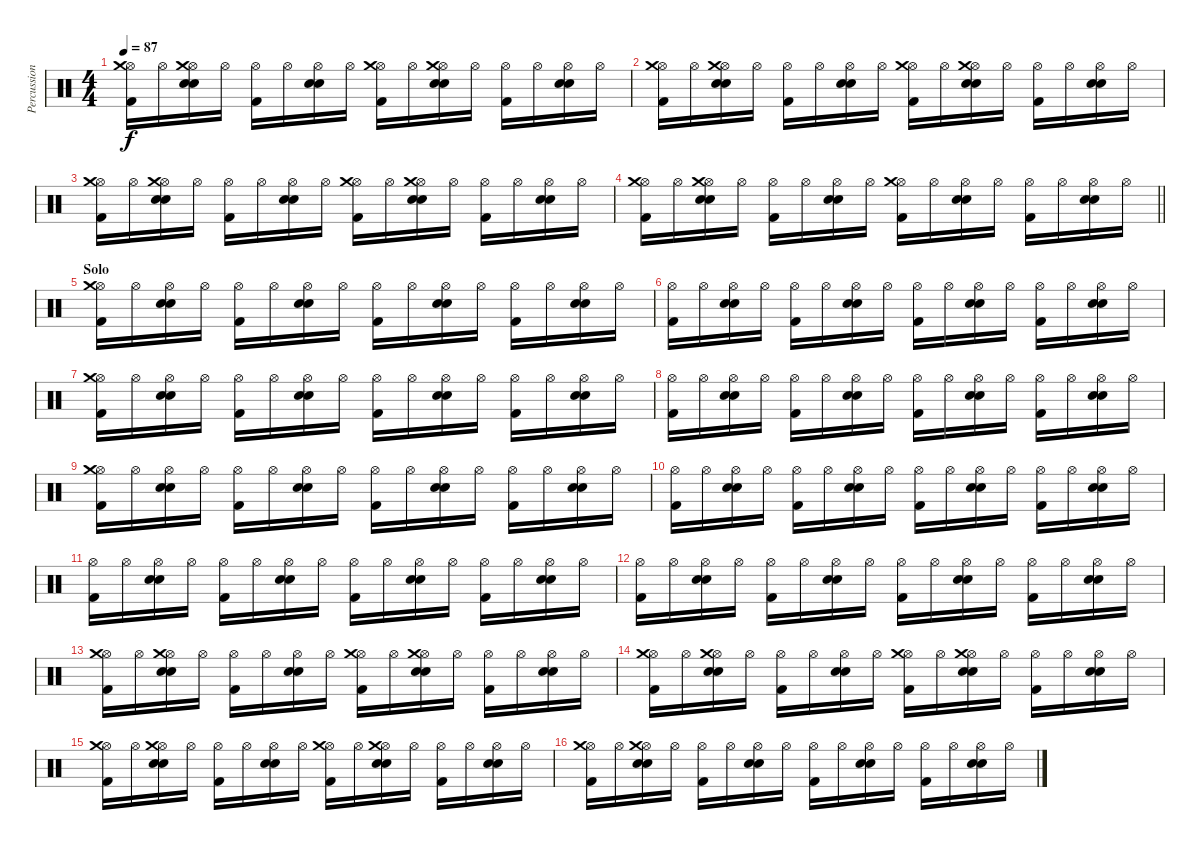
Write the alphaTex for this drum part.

\track ("Percussion" "Percussion") {instrument percussion}
\staff {score}
\articulation defaults
\ts (4 4)
\tempo 87
\clef neutral
\ks c
("Hi-Hat (open)" "Crash medium (hit)" "Kick (hit) 2").16{dy f} "Hi-Hat (open)".16 ("Hi-Hat (open)" "Crash medium (hit)" "Snare (hit) 2" "Electric Snare (hit)").16 "Hi-Hat (open)".16 ("Hi-Hat (open)" "Kick (hit) 2").16 "Hi-Hat (open)".16 ("Hi-Hat (open)" "Snare (hit) 2" "Electric Snare (hit)").16 "Hi-Hat (open)".16 ("Hi-Hat (open)" "Crash medium (hit)" "Kick (hit) 2").16 "Hi-Hat (open)".16 ("Hi-Hat (open)" "Crash medium (hit)" "Snare (hit) 2" "Electric Snare (hit)").16 "Hi-Hat (open)".16 ("Hi-Hat (open)" "Kick (hit) 2").16 "Hi-Hat (open)".16 ("Hi-Hat (open)" "Snare (hit) 2" "Electric Snare (hit)").16 "Hi-Hat (open)".16 |
("Hi-Hat (open)" "Crash medium (hit)" "Kick (hit) 2").16 "Hi-Hat (open)".16 ("Hi-Hat (open)" "Crash medium (hit)" "Snare (hit) 2" "Electric Snare (hit)").16 "Hi-Hat (open)".16 ("Hi-Hat (open)" "Kick (hit) 2").16 "Hi-Hat (open)".16 ("Hi-Hat (open)" "Snare (hit) 2" "Electric Snare (hit)").16 "Hi-Hat (open)".16 ("Hi-Hat (open)" "Crash medium (hit)" "Kick (hit) 2").16 "Hi-Hat (open)".16 ("Hi-Hat (open)" "Crash medium (hit)" "Snare (hit) 2" "Electric Snare (hit)").16 "Hi-Hat (open)".16 ("Hi-Hat (open)" "Kick (hit) 2").16 "Hi-Hat (open)".16 ("Hi-Hat (open)" "Snare (hit) 2" "Electric Snare (hit)").16 "Hi-Hat (open)".16 |
("Hi-Hat (open)" "Crash medium (hit)" "Kick (hit) 2").16 "Hi-Hat (open)".16 ("Hi-Hat (open)" "Crash medium (hit)" "Snare (hit) 2" "Electric Snare (hit)").16 "Hi-Hat (open)".16 ("Hi-Hat (open)" "Kick (hit) 2").16 "Hi-Hat (open)".16 ("Hi-Hat (open)" "Snare (hit) 2" "Electric Snare (hit)").16 "Hi-Hat (open)".16 ("Hi-Hat (open)" "Crash medium (hit)" "Kick (hit) 2").16 "Hi-Hat (open)".16 ("Hi-Hat (open)" "Crash medium (hit)" "Snare (hit) 2" "Electric Snare (hit)").16 "Hi-Hat (open)".16 ("Hi-Hat (open)" "Kick (hit) 2").16 "Hi-Hat (open)".16 ("Hi-Hat (open)" "Snare (hit) 2" "Electric Snare (hit)").16 "Hi-Hat (open)".16 |
\barLineRight lightlight
("Hi-Hat (open)" "Crash medium (hit)" "Kick (hit) 2").16 "Hi-Hat (open)".16 ("Hi-Hat (open)" "Crash medium (hit)" "Snare (hit) 2" "Electric Snare (hit)").16 "Hi-Hat (open)".16 ("Hi-Hat (open)" "Kick (hit) 2").16 "Hi-Hat (open)".16 ("Hi-Hat (open)" "Snare (hit) 2" "Electric Snare (hit)").16 "Hi-Hat (open)".16 ("Hi-Hat (open)" "Crash medium (hit)" "Kick (hit) 2").16 "Hi-Hat (open)".16 ("Hi-Hat (open)" "Snare (hit) 2" "Electric Snare (hit)").16 "Hi-Hat (open)".16 ("Hi-Hat (open)" "Kick (hit) 2").16 "Hi-Hat (open)".16 ("Hi-Hat (open)" "Snare (hit) 2" "Electric Snare (hit)").16 "Hi-Hat (open)".16 |
\section ("" "Solo")
("Hi-Hat (open)" "Crash medium (hit)" "Kick (hit) 2").16 "Hi-Hat (open)".16 ("Hi-Hat (open)" "Snare (hit) 2" "Electric Snare (hit)").16 "Hi-Hat (open)".16 ("Hi-Hat (open)" "Kick (hit) 2").16 "Hi-Hat (open)".16 ("Hi-Hat (open)" "Snare (hit) 2" "Electric Snare (hit)").16 "Hi-Hat (open)".16 ("Hi-Hat (open)" "Kick (hit) 2").16 "Hi-Hat (open)".16 ("Hi-Hat (open)" "Snare (hit) 2" "Electric Snare (hit)").16 "Hi-Hat (open)".16 ("Hi-Hat (open)" "Kick (hit) 2").16 "Hi-Hat (open)".16 ("Hi-Hat (open)" "Snare (hit) 2" "Electric Snare (hit)").16 "Hi-Hat (open)".16 |
("Hi-Hat (open)" "Kick (hit) 2").16 "Hi-Hat (open)".16 ("Hi-Hat (open)" "Snare (hit) 2" "Electric Snare (hit)").16 "Hi-Hat (open)".16 ("Hi-Hat (open)" "Kick (hit) 2").16 "Hi-Hat (open)".16 ("Hi-Hat (open)" "Snare (hit) 2" "Electric Snare (hit)").16 "Hi-Hat (open)".16 ("Hi-Hat (open)" "Kick (hit) 2").16 "Hi-Hat (open)".16 ("Hi-Hat (open)" "Snare (hit) 2" "Electric Snare (hit)").16 "Hi-Hat (open)".16 ("Hi-Hat (open)" "Kick (hit) 2").16 "Hi-Hat (open)".16 ("Hi-Hat (open)" "Snare (hit) 2" "Electric Snare (hit)").16 "Hi-Hat (open)".16 |
("Hi-Hat (open)" "Crash medium (hit)" "Kick (hit) 2").16 "Hi-Hat (open)".16 ("Hi-Hat (open)" "Snare (hit) 2" "Electric Snare (hit)").16 "Hi-Hat (open)".16 ("Hi-Hat (open)" "Kick (hit) 2").16 "Hi-Hat (open)".16 ("Hi-Hat (open)" "Snare (hit) 2" "Electric Snare (hit)").16 "Hi-Hat (open)".16 ("Hi-Hat (open)" "Kick (hit) 2").16 "Hi-Hat (open)".16 ("Hi-Hat (open)" "Snare (hit) 2" "Electric Snare (hit)").16 "Hi-Hat (open)".16 ("Hi-Hat (open)" "Kick (hit) 2").16 "Hi-Hat (open)".16 ("Hi-Hat (open)" "Snare (hit) 2" "Electric Snare (hit)").16 "Hi-Hat (open)".16 |
("Hi-Hat (open)" "Kick (hit) 2").16 "Hi-Hat (open)".16 ("Hi-Hat (open)" "Snare (hit) 2" "Electric Snare (hit)").16 "Hi-Hat (open)".16 ("Hi-Hat (open)" "Kick (hit) 2").16 "Hi-Hat (open)".16 ("Hi-Hat (open)" "Snare (hit) 2" "Electric Snare (hit)").16 "Hi-Hat (open)".16 ("Hi-Hat (open)" "Kick (hit) 2").16 "Hi-Hat (open)".16 ("Hi-Hat (open)" "Snare (hit) 2" "Electric Snare (hit)").16 "Hi-Hat (open)".16 ("Hi-Hat (open)" "Kick (hit) 2").16 "Hi-Hat (open)".16 ("Hi-Hat (open)" "Snare (hit) 2" "Electric Snare (hit)").16 "Hi-Hat (open)".16 |
("Hi-Hat (open)" "Crash medium (hit)" "Kick (hit) 2").16 "Hi-Hat (open)".16 ("Hi-Hat (open)" "Snare (hit) 2" "Electric Snare (hit)").16 "Hi-Hat (open)".16 ("Hi-Hat (open)" "Kick (hit) 2").16 "Hi-Hat (open)".16 ("Hi-Hat (open)" "Snare (hit) 2" "Electric Snare (hit)").16 "Hi-Hat (open)".16 ("Hi-Hat (open)" "Kick (hit) 2").16 "Hi-Hat (open)".16 ("Hi-Hat (open)" "Snare (hit) 2" "Electric Snare (hit)").16 "Hi-Hat (open)".16 ("Hi-Hat (open)" "Kick (hit) 2").16 "Hi-Hat (open)".16 ("Hi-Hat (open)" "Snare (hit) 2" "Electric Snare (hit)").16 "Hi-Hat (open)".16 |
("Hi-Hat (open)" "Kick (hit) 2").16 "Hi-Hat (open)".16 ("Hi-Hat (open)" "Snare (hit) 2" "Electric Snare (hit)").16 "Hi-Hat (open)".16 ("Hi-Hat (open)" "Kick (hit) 2").16 "Hi-Hat (open)".16 ("Hi-Hat (open)" "Snare (hit) 2" "Electric Snare (hit)").16 "Hi-Hat (open)".16 ("Hi-Hat (open)" "Kick (hit) 2").16 "Hi-Hat (open)".16 ("Hi-Hat (open)" "Snare (hit) 2" "Electric Snare (hit)").16 "Hi-Hat (open)".16 ("Hi-Hat (open)" "Kick (hit) 2").16 "Hi-Hat (open)".16 ("Hi-Hat (open)" "Snare (hit) 2" "Electric Snare (hit)").16 "Hi-Hat (open)".16 |
("Hi-Hat (open)" "Kick (hit) 2").16 "Hi-Hat (open)".16 ("Hi-Hat (open)" "Snare (hit) 2" "Electric Snare (hit)").16 "Hi-Hat (open)".16 ("Hi-Hat (open)" "Kick (hit) 2").16 "Hi-Hat (open)".16 ("Hi-Hat (open)" "Snare (hit) 2" "Electric Snare (hit)").16 "Hi-Hat (open)".16 ("Hi-Hat (open)" "Kick (hit) 2").16 "Hi-Hat (open)".16 ("Hi-Hat (open)" "Snare (hit) 2" "Electric Snare (hit)").16 "Hi-Hat (open)".16 ("Hi-Hat (open)" "Kick (hit) 2").16 "Hi-Hat (open)".16 ("Hi-Hat (open)" "Snare (hit) 2" "Electric Snare (hit)").16 "Hi-Hat (open)".16 |
("Hi-Hat (open)" "Kick (hit) 2").16 "Hi-Hat (open)".16 ("Hi-Hat (open)" "Snare (hit) 2" "Electric Snare (hit)").16 "Hi-Hat (open)".16 ("Hi-Hat (open)" "Kick (hit) 2").16 "Hi-Hat (open)".16 ("Hi-Hat (open)" "Snare (hit) 2" "Electric Snare (hit)").16 "Hi-Hat (open)".16 ("Hi-Hat (open)" "Kick (hit) 2").16 "Hi-Hat (open)".16 ("Hi-Hat (open)" "Snare (hit) 2" "Electric Snare (hit)").16 "Hi-Hat (open)".16 ("Hi-Hat (open)" "Kick (hit) 2").16 "Hi-Hat (open)".16 ("Hi-Hat (open)" "Snare (hit) 2" "Electric Snare (hit)").16 "Hi-Hat (open)".16 |
("Hi-Hat (open)" "Crash medium (hit)" "Kick (hit) 2").16 "Hi-Hat (open)".16 ("Hi-Hat (open)" "Crash medium (hit)" "Snare (hit) 2" "Electric Snare (hit)").16 "Hi-Hat (open)".16 ("Hi-Hat (open)" "Kick (hit) 2").16 "Hi-Hat (open)".16 ("Hi-Hat (open)" "Snare (hit) 2" "Electric Snare (hit)").16 "Hi-Hat (open)".16 ("Hi-Hat (open)" "Crash medium (hit)" "Kick (hit) 2").16 "Hi-Hat (open)".16 ("Hi-Hat (open)" "Crash medium (hit)" "Snare (hit) 2" "Electric Snare (hit)").16 "Hi-Hat (open)".16 ("Hi-Hat (open)" "Kick (hit) 2").16 "Hi-Hat (open)".16 ("Hi-Hat (open)" "Snare (hit) 2" "Electric Snare (hit)").16 "Hi-Hat (open)".16 |
("Hi-Hat (open)" "Crash medium (hit)" "Kick (hit) 2").16 "Hi-Hat (open)".16 ("Hi-Hat (open)" "Crash medium (hit)" "Snare (hit) 2" "Electric Snare (hit)").16 "Hi-Hat (open)".16 ("Hi-Hat (open)" "Kick (hit) 2").16 "Hi-Hat (open)".16 ("Hi-Hat (open)" "Snare (hit) 2" "Electric Snare (hit)").16 "Hi-Hat (open)".16 ("Hi-Hat (open)" "Crash medium (hit)" "Kick (hit) 2").16 "Hi-Hat (open)".16 ("Hi-Hat (open)" "Crash medium (hit)" "Snare (hit) 2" "Electric Snare (hit)").16 "Hi-Hat (open)".16 ("Hi-Hat (open)" "Kick (hit) 2").16 "Hi-Hat (open)".16 ("Hi-Hat (open)" "Snare (hit) 2" "Electric Snare (hit)").16 "Hi-Hat (open)".16 |
("Hi-Hat (open)" "Crash medium (hit)" "Kick (hit) 2").16 "Hi-Hat (open)".16 ("Hi-Hat (open)" "Crash medium (hit)" "Snare (hit) 2" "Electric Snare (hit)").16 "Hi-Hat (open)".16 ("Hi-Hat (open)" "Kick (hit) 2").16 "Hi-Hat (open)".16 ("Hi-Hat (open)" "Snare (hit) 2" "Electric Snare (hit)").16 "Hi-Hat (open)".16 ("Hi-Hat (open)" "Crash medium (hit)" "Kick (hit) 2").16 "Hi-Hat (open)".16 ("Hi-Hat (open)" "Crash medium (hit)" "Snare (hit) 2" "Electric Snare (hit)").16 "Hi-Hat (open)".16 ("Hi-Hat (open)" "Kick (hit) 2").16 "Hi-Hat (open)".16 ("Hi-Hat (open)" "Snare (hit) 2" "Electric Snare (hit)").16 "Hi-Hat (open)".16 |
("Hi-Hat (open)" "Crash medium (hit)" "Kick (hit) 2").16 "Hi-Hat (open)".16 ("Hi-Hat (open)" "Crash medium (hit)" "Snare (hit) 2" "Electric Snare (hit)").16 "Hi-Hat (open)".16 ("Hi-Hat (open)" "Kick (hit) 2").16 "Hi-Hat (open)".16 ("Hi-Hat (open)" "Snare (hit) 2" "Electric Snare (hit)").16 "Hi-Hat (open)".16 ("Hi-Hat (open)" "Kick (hit) 2").16 "Hi-Hat (open)".16 ("Hi-Hat (open)" "Snare (hit) 2" "Electric Snare (hit)").16 "Hi-Hat (open)".16 ("Hi-Hat (open)" "Kick (hit) 2").16 "Hi-Hat (open)".16 ("Hi-Hat (open)" "Snare (hit) 2" "Electric Snare (hit)").16 "Hi-Hat (open)".16
